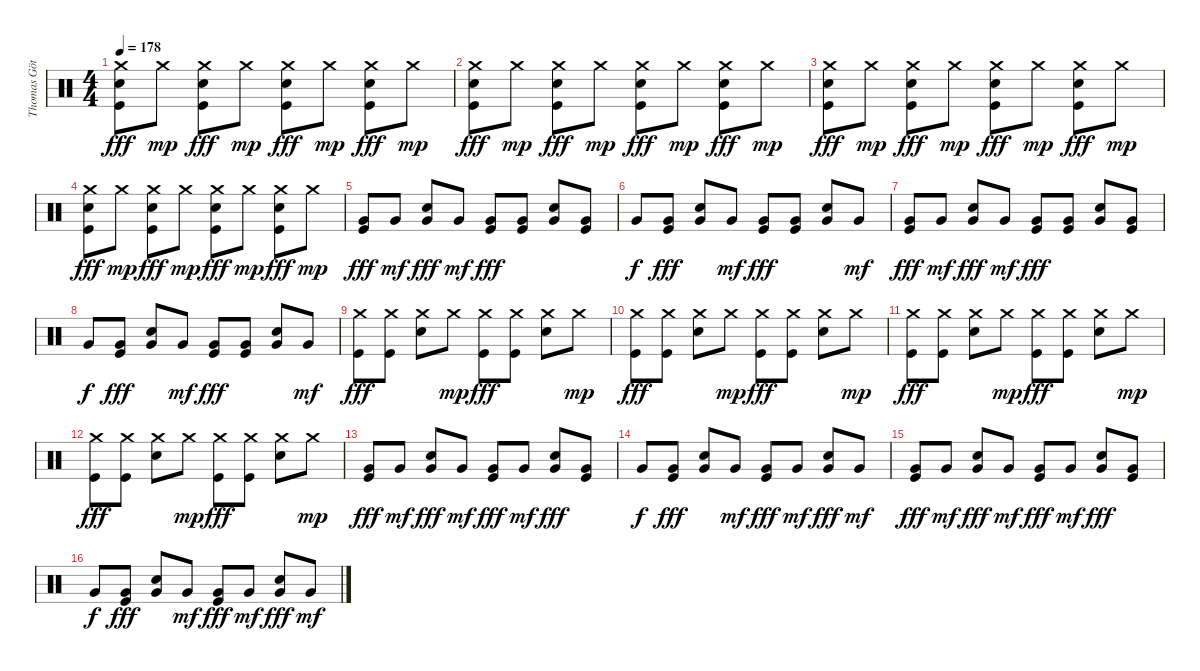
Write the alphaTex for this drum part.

\track ("Thomas Götz" "Thomas Göt") {instrument percussion}
\staff {score}
\articulation defaults
\ts (4 4)
\tempo 178
\clef neutral
\ks c
("Crash medium (hit)" "Electric Snare (hit)" "Kick (hit)").8{dy fff} "Crash medium (hit)".8{dy mp} ("Crash medium (hit)" "Electric Snare (hit)" "Kick (hit)").8{dy fff} "Crash medium (hit)".8{dy mp} ("Crash medium (hit)" "Electric Snare (hit)" "Kick (hit)").8{dy fff} "Crash medium (hit)".8{dy mp} ("Crash medium (hit)" "Electric Snare (hit)" "Kick (hit)").8{dy fff} "Crash medium (hit)".8{dy mp} |
("Crash medium (hit)" "Electric Snare (hit)" "Kick (hit)").8{dy fff} "Crash medium (hit)".8{dy mp} ("Crash medium (hit)" "Electric Snare (hit)" "Kick (hit)").8{dy fff} "Crash medium (hit)".8{dy mp} ("Crash medium (hit)" "Electric Snare (hit)" "Kick (hit)").8{dy fff} "Crash medium (hit)".8{dy mp} ("Crash medium (hit)" "Electric Snare (hit)" "Kick (hit)").8{dy fff} "Crash medium (hit)".8{dy mp} |
("Crash medium (hit)" "Electric Snare (hit)" "Kick (hit)").8{dy fff} "Crash medium (hit)".8{dy mp} ("Crash medium (hit)" "Electric Snare (hit)" "Kick (hit)").8{dy fff} "Crash medium (hit)".8{dy mp} ("Crash medium (hit)" "Electric Snare (hit)" "Kick (hit)").8{dy fff} "Crash medium (hit)".8{dy mp} ("Crash medium (hit)" "Electric Snare (hit)" "Kick (hit)").8{dy fff} "Crash medium (hit)".8{dy mp} |
("Crash medium (hit)" "Electric Snare (hit)" "Kick (hit)").8{dy fff} "Crash medium (hit)".8{dy mp} ("Crash medium (hit)" "Electric Snare (hit)" "Kick (hit)").8{dy fff} "Crash medium (hit)".8{dy mp} ("Crash medium (hit)" "Electric Snare (hit)" "Kick (hit)").8{dy fff} "Crash medium (hit)".8{dy mp} ("Crash medium (hit)" "Electric Snare (hit)" "Kick (hit)").8{dy fff} "Crash medium (hit)".8{dy mp} |
("Very Low Tom (hit)" "Kick (hit)").8{dy fff} "Very Low Tom (hit)".8{dy mf} ("Very Low Tom (hit)" "Electric Snare (hit)").8{dy fff} "Very Low Tom (hit)".8{dy mf} ("Very Low Tom (hit)" "Kick (hit)").8{dy fff} ("Very Low Tom (hit)" "Kick (hit)").8 ("Very Low Tom (hit)" "Electric Snare (hit)").8 ("Very Low Tom (hit)" "Kick (hit)").8 |
"Very Low Tom (hit)".8{dy f} ("Very Low Tom (hit)" "Kick (hit)").8{dy fff} ("Very Low Tom (hit)" "Electric Snare (hit)").8 "Very Low Tom (hit)".8{dy mf} ("Very Low Tom (hit)" "Kick (hit)").8{dy fff} ("Very Low Tom (hit)" "Kick (hit)").8 ("Very Low Tom (hit)" "Electric Snare (hit)").8 "Very Low Tom (hit)".8{dy mf} |
("Very Low Tom (hit)" "Kick (hit)").8{dy fff} "Very Low Tom (hit)".8{dy mf} ("Very Low Tom (hit)" "Electric Snare (hit)").8{dy fff} "Very Low Tom (hit)".8{dy mf} ("Very Low Tom (hit)" "Kick (hit)").8{dy fff} ("Very Low Tom (hit)" "Kick (hit)").8 ("Very Low Tom (hit)" "Electric Snare (hit)").8 ("Very Low Tom (hit)" "Kick (hit)").8 |
"Very Low Tom (hit)".8{dy f} ("Very Low Tom (hit)" "Kick (hit)").8{dy fff} ("Very Low Tom (hit)" "Electric Snare (hit)").8 "Very Low Tom (hit)".8{dy mf} ("Very Low Tom (hit)" "Kick (hit)").8{dy fff} ("Very Low Tom (hit)" "Kick (hit)").8 ("Very Low Tom (hit)" "Electric Snare (hit)").8 "Very Low Tom (hit)".8{dy mf} |
("Crash medium (hit)" "Kick (hit)").8{dy fff} ("Crash medium (hit)" "Kick (hit)").8 ("Crash medium (hit)" "Electric Snare (hit)").8 "Crash medium (hit)".8{dy mp} ("Crash medium (hit)" "Kick (hit)").8{dy fff} ("Crash medium (hit)" "Kick (hit)").8 ("Crash medium (hit)" "Electric Snare (hit)").8 "Crash medium (hit)".8{dy mp} |
("Crash medium (hit)" "Kick (hit)").8{dy fff} ("Crash medium (hit)" "Kick (hit)").8 ("Crash medium (hit)" "Electric Snare (hit)").8 "Crash medium (hit)".8{dy mp} ("Crash medium (hit)" "Kick (hit)").8{dy fff} ("Crash medium (hit)" "Kick (hit)").8 ("Crash medium (hit)" "Electric Snare (hit)").8 "Crash medium (hit)".8{dy mp} |
("Crash medium (hit)" "Kick (hit)").8{dy fff} ("Crash medium (hit)" "Kick (hit)").8 ("Crash medium (hit)" "Electric Snare (hit)").8 "Crash medium (hit)".8{dy mp} ("Crash medium (hit)" "Kick (hit)").8{dy fff} ("Crash medium (hit)" "Kick (hit)").8 ("Crash medium (hit)" "Electric Snare (hit)").8 "Crash medium (hit)".8{dy mp} |
("Crash medium (hit)" "Kick (hit)").8{dy fff} ("Crash medium (hit)" "Kick (hit)").8 ("Crash medium (hit)" "Electric Snare (hit)").8 "Crash medium (hit)".8{dy mp} ("Crash medium (hit)" "Kick (hit)").8{dy fff} ("Crash medium (hit)" "Kick (hit)").8 ("Crash medium (hit)" "Electric Snare (hit)").8 "Crash medium (hit)".8{dy mp} |
("Very Low Tom (hit)" "Kick (hit)").8{dy fff} "Very Low Tom (hit)".8{dy mf} ("Very Low Tom (hit)" "Electric Snare (hit)").8{dy fff} "Very Low Tom (hit)".8{dy mf} ("Very Low Tom (hit)" "Kick (hit)").8{dy fff} "Very Low Tom (hit)".8{dy mf} ("Very Low Tom (hit)" "Electric Snare (hit)").8{dy fff} ("Very Low Tom (hit)" "Kick (hit)").8 |
"Very Low Tom (hit)".8{dy f} ("Very Low Tom (hit)" "Kick (hit)").8{dy fff} ("Very Low Tom (hit)" "Electric Snare (hit)").8 "Very Low Tom (hit)".8{dy mf} ("Very Low Tom (hit)" "Kick (hit)").8{dy fff} "Very Low Tom (hit)".8{dy mf} ("Very Low Tom (hit)" "Electric Snare (hit)").8{dy fff} "Very Low Tom (hit)".8{dy mf} |
("Very Low Tom (hit)" "Kick (hit)").8{dy fff} "Very Low Tom (hit)".8{dy mf} ("Very Low Tom (hit)" "Electric Snare (hit)").8{dy fff} "Very Low Tom (hit)".8{dy mf} ("Very Low Tom (hit)" "Kick (hit)").8{dy fff} "Very Low Tom (hit)".8{dy mf} ("Very Low Tom (hit)" "Electric Snare (hit)").8{dy fff} ("Very Low Tom (hit)" "Kick (hit)").8 |
"Very Low Tom (hit)".8{dy f} ("Very Low Tom (hit)" "Kick (hit)").8{dy fff} ("Very Low Tom (hit)" "Electric Snare (hit)").8 "Very Low Tom (hit)".8{dy mf} ("Very Low Tom (hit)" "Kick (hit)").8{dy fff} "Very Low Tom (hit)".8{dy mf} ("Very Low Tom (hit)" "Electric Snare (hit)").8{dy fff} "Very Low Tom (hit)".8{dy mf}
